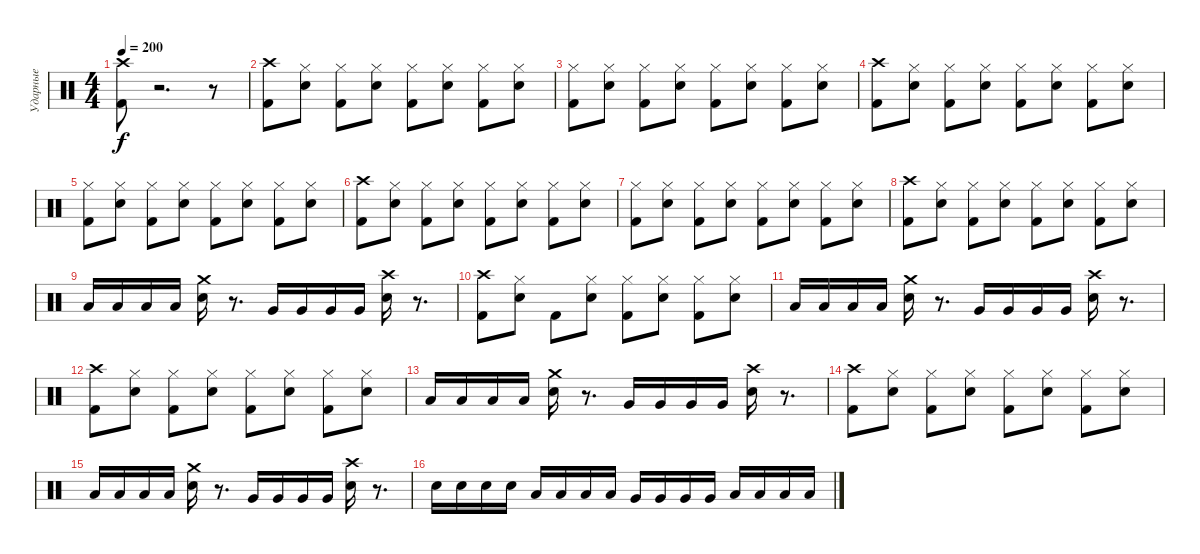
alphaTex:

\track ("Ударные" "Ударные") {instrument percussion}
\staff {score}
\articulation defaults
\ts (4 4)
\tempo 200
\clef neutral
\ks c
("Crash high (hit)" "Kick (hit) 2").8{dy f} r.2{d} r.8 |
("Crash high (hit)" "Kick (hit) 2").8 ("Hi-Hat (closed)" "Snare (hit) 2").8 ("Hi-Hat (closed)" "Kick (hit) 2").8 ("Hi-Hat (closed)" "Snare (hit) 2").8 ("Hi-Hat (closed)" "Kick (hit) 2").8 ("Hi-Hat (closed)" "Snare (hit) 2").8 ("Hi-Hat (closed)" "Kick (hit) 2").8 ("Hi-Hat (closed)" "Snare (hit) 2").8 |
("Hi-Hat (closed)" "Kick (hit) 2").8 ("Hi-Hat (closed)" "Snare (hit) 2").8 ("Hi-Hat (closed)" "Kick (hit) 2").8 ("Hi-Hat (closed)" "Snare (hit) 2").8 ("Hi-Hat (closed)" "Kick (hit) 2").8 ("Hi-Hat (closed)" "Snare (hit) 2").8 ("Hi-Hat (closed)" "Kick (hit) 2").8 ("Hi-Hat (closed)" "Snare (hit) 2").8 |
("Crash high (hit)" "Kick (hit) 2").8 ("Hi-Hat (closed)" "Snare (hit) 2").8 ("Hi-Hat (closed)" "Kick (hit) 2").8 ("Hi-Hat (closed)" "Snare (hit) 2").8 ("Hi-Hat (closed)" "Kick (hit) 2").8 ("Hi-Hat (closed)" "Snare (hit) 2").8 ("Hi-Hat (closed)" "Kick (hit) 2").8 ("Hi-Hat (closed)" "Snare (hit) 2").8 |
("Hi-Hat (closed)" "Kick (hit) 2").8 ("Hi-Hat (closed)" "Snare (hit) 2").8 ("Hi-Hat (closed)" "Kick (hit) 2").8 ("Hi-Hat (closed)" "Snare (hit) 2").8 ("Hi-Hat (closed)" "Kick (hit) 2").8 ("Hi-Hat (closed)" "Snare (hit) 2").8 ("Hi-Hat (closed)" "Kick (hit) 2").8 ("Hi-Hat (closed)" "Snare (hit) 2").8 |
("Crash high (hit)" "Kick (hit) 2").8 ("Hi-Hat (closed)" "Snare (hit) 2").8 ("Hi-Hat (closed)" "Kick (hit) 2").8 ("Hi-Hat (closed)" "Snare (hit) 2").8 ("Hi-Hat (closed)" "Kick (hit) 2").8 ("Hi-Hat (closed)" "Snare (hit) 2").8 ("Hi-Hat (closed)" "Kick (hit) 2").8 ("Hi-Hat (closed)" "Snare (hit) 2").8 |
("Hi-Hat (closed)" "Kick (hit) 2").8 ("Hi-Hat (closed)" "Snare (hit) 2").8 ("Hi-Hat (closed)" "Kick (hit) 2").8 ("Hi-Hat (closed)" "Snare (hit) 2").8 ("Hi-Hat (closed)" "Kick (hit) 2").8 ("Hi-Hat (closed)" "Snare (hit) 2").8 ("Hi-Hat (closed)" "Kick (hit) 2").8 ("Hi-Hat (closed)" "Snare (hit) 2").8 |
("Crash high (hit)" "Kick (hit) 2").8 ("Hi-Hat (closed)" "Snare (hit) 2").8 ("Hi-Hat (closed)" "Kick (hit) 2").8 ("Hi-Hat (closed)" "Snare (hit) 2").8 ("Hi-Hat (closed)" "Kick (hit) 2").8 ("Hi-Hat (closed)" "Snare (hit) 2").8 ("Hi-Hat (closed)" "Kick (hit) 2").8 ("Hi-Hat (closed)" "Snare (hit) 2").8 |
"Low Tom (hit)".16 "Low Tom (hit)".16 "Low Tom (hit)".16 "Low Tom (hit)".16 ("Crash medium (hit)" "Snare (hit) 2").16 r.8{d} "Very Low Tom (hit)".16 "Very Low Tom (hit)".16 "Very Low Tom (hit)".16 "Very Low Tom (hit)".16 ("Crash high (hit)" "Snare (hit) 2").16 r.8{d} |
("Crash high (hit)" "Kick (hit) 2").8 ("Hi-Hat (closed)" "Snare (hit) 2").8 "Kick (hit) 2".8 ("Hi-Hat (closed)" "Snare (hit) 2").8 ("Hi-Hat (closed)" "Kick (hit) 2").8 ("Hi-Hat (closed)" "Snare (hit) 2").8 ("Hi-Hat (closed)" "Kick (hit) 2").8 ("Hi-Hat (closed)" "Snare (hit) 2").8 |
"Low Tom (hit)".16 "Low Tom (hit)".16 "Low Tom (hit)".16 "Low Tom (hit)".16 ("Crash medium (hit)" "Snare (hit) 2").16 r.8{d} "Very Low Tom (hit)".16 "Very Low Tom (hit)".16 "Very Low Tom (hit)".16 "Very Low Tom (hit)".16 ("Crash high (hit)" "Snare (hit) 2").16 r.8{d} |
("Crash high (hit)" "Kick (hit) 2").8 ("Hi-Hat (closed)" "Snare (hit) 2").8 ("Hi-Hat (closed)" "Kick (hit) 2").8 ("Hi-Hat (closed)" "Snare (hit) 2").8 ("Hi-Hat (closed)" "Kick (hit) 2").8 ("Hi-Hat (closed)" "Snare (hit) 2").8 ("Hi-Hat (closed)" "Kick (hit) 2").8 ("Hi-Hat (closed)" "Snare (hit) 2").8 |
"Low Tom (hit)".16 "Low Tom (hit)".16 "Low Tom (hit)".16 "Low Tom (hit)".16 ("Crash medium (hit)" "Snare (hit) 2").16 r.8{d} "Very Low Tom (hit)".16 "Very Low Tom (hit)".16 "Very Low Tom (hit)".16 "Very Low Tom (hit)".16 ("Crash high (hit)" "Snare (hit) 2").16 r.8{d} |
("Crash high (hit)" "Kick (hit) 2").8 ("Hi-Hat (closed)" "Snare (hit) 2").8 ("Hi-Hat (closed)" "Kick (hit) 2").8 ("Hi-Hat (closed)" "Snare (hit) 2").8 ("Hi-Hat (closed)" "Kick (hit) 2").8 ("Hi-Hat (closed)" "Snare (hit) 2").8 ("Hi-Hat (closed)" "Kick (hit) 2").8 ("Hi-Hat (closed)" "Snare (hit) 2").8 |
"Low Tom (hit)".16 "Low Tom (hit)".16 "Low Tom (hit)".16 "Low Tom (hit)".16 ("Crash medium (hit)" "Snare (hit) 2").16 r.8{d} "Very Low Tom (hit)".16 "Very Low Tom (hit)".16 "Very Low Tom (hit)".16 "Very Low Tom (hit)".16 ("Crash high (hit)" "Snare (hit) 2").16 r.8{d} |
"Snare (hit) 2".16 "Snare (hit) 2".16 "Snare (hit) 2".16 "Snare (hit) 2".16 "Low Tom (hit)".16 "Low Tom (hit)".16 "Low Tom (hit)".16 "Low Tom (hit)".16 "Very Low Tom (hit)".16 "Very Low Tom (hit)".16 "Very Low Tom (hit)".16 "Very Low Tom (hit)".16 "Low Floor Tom (hit)".16 "Low Floor Tom (hit)".16 "Low Floor Tom (hit)".16 "Low Floor Tom (hit)".16
